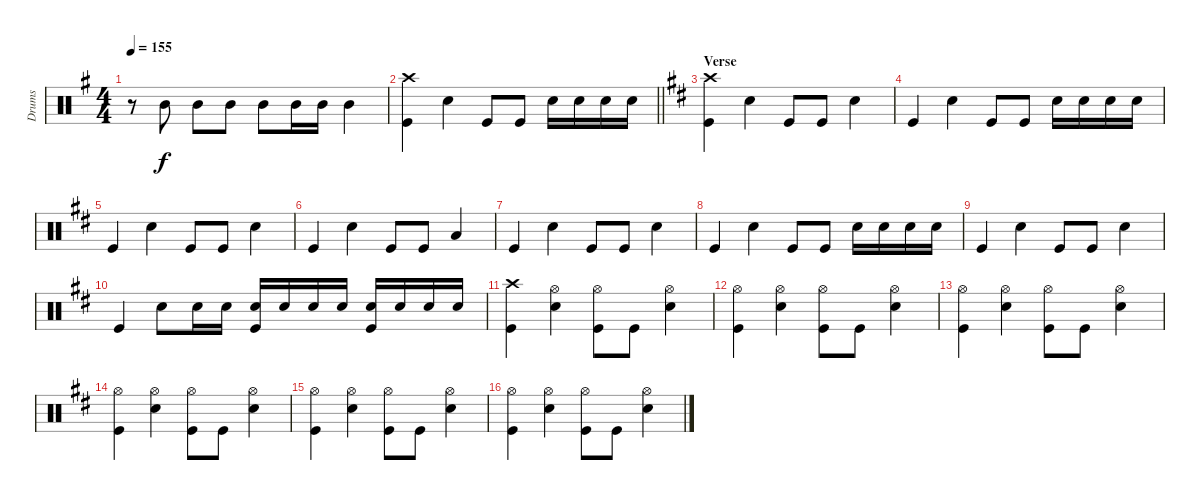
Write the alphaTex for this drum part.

\track ("Drums" "Drums") {instrument percussion}
\staff {score}
\articulation defaults
\ts (4 4)
\tempo 155
\clef neutral
\ks g
r.8{dy f} "Mid Tom (hit)".8 "Mid Tom (hit)".8 "Mid Tom (hit)".8 "Mid Tom (hit)".8 "Mid Tom (hit)".16 "Mid Tom (hit)".16 "Mid Tom (hit)".4 |
\barLineRight lightlight
("Crash high (hit)" "Kick (hit)").4 "Snare (hit) 2".4 "Kick (hit)".8 "Kick (hit)".8 "Snare (hit) 2".16 "Snare (hit) 2".16 "Snare (hit) 2".16 "Snare (hit) 2".16 |
\section ("" "Verse")
\ks d
("Crash high (hit)" "Kick (hit)").4 "Snare (hit) 2".4 "Kick (hit)".8 "Kick (hit)".8 "Snare (hit) 2".4 |
"Kick (hit)".4 "Snare (hit) 2".4 "Kick (hit)".8 "Kick (hit)".8 "Snare (hit) 2".16 "Snare (hit) 2".16 "Snare (hit) 2".16 "Snare (hit) 2".16 |
"Kick (hit)".4 "Snare (hit) 2".4 "Kick (hit)".8 "Kick (hit)".8 "Snare (hit) 2".4 |
"Kick (hit)".4 "Snare (hit) 2".4 "Kick (hit)".8 "Kick (hit)".8 "Low Tom (hit)".4 |
"Kick (hit)".4 "Snare (hit) 2".4 "Kick (hit)".8 "Kick (hit)".8 "Snare (hit) 2".4 |
"Kick (hit)".4 "Snare (hit) 2".4 "Kick (hit)".8 "Kick (hit)".8 "Snare (hit) 2".16 "Snare (hit) 2".16 "Snare (hit) 2".16 "Snare (hit) 2".16 |
"Kick (hit)".4 "Snare (hit) 2".4 "Kick (hit)".8 "Kick (hit)".8 "Snare (hit) 2".4 |
"Kick (hit)".4 "Snare (hit) 2".8 "Snare (hit) 2".16 "Snare (hit) 2".16 ("Snare (hit) 2" "Kick (hit)").16 "Snare (hit) 2".16 "Snare (hit) 2".16 "Snare (hit) 2".16 ("Snare (hit) 2" "Kick (hit)").16 "Snare (hit) 2".16 "Snare (hit) 2".16 "Snare (hit) 2".16 |
("Crash high (hit)" "Kick (hit)").4 ("Hi-Hat (open)" "Snare (hit) 2").4 ("Hi-Hat (open)" "Kick (hit)").8 "Kick (hit)".8 ("Hi-Hat (open)" "Snare (hit) 2").4 |
("Hi-Hat (open)" "Kick (hit)").4 ("Hi-Hat (open)" "Snare (hit) 2").4 ("Hi-Hat (open)" "Kick (hit)").8 "Kick (hit)".8 ("Hi-Hat (open)" "Snare (hit) 2").4 |
("Hi-Hat (open)" "Kick (hit)").4 ("Hi-Hat (open)" "Snare (hit) 2").4 ("Hi-Hat (open)" "Kick (hit)").8 "Kick (hit)".8 ("Hi-Hat (open)" "Snare (hit) 2").4 |
("Hi-Hat (open)" "Kick (hit)").4 ("Hi-Hat (open)" "Snare (hit) 2").4 ("Hi-Hat (open)" "Kick (hit)").8 "Kick (hit)".8 ("Hi-Hat (open)" "Snare (hit) 2").4 |
("Hi-Hat (open)" "Kick (hit)").4 ("Hi-Hat (open)" "Snare (hit) 2").4 ("Hi-Hat (open)" "Kick (hit)").8 "Kick (hit)".8 ("Hi-Hat (open)" "Snare (hit) 2").4 |
("Hi-Hat (open)" "Kick (hit)").4 ("Hi-Hat (open)" "Snare (hit) 2").4 ("Hi-Hat (open)" "Kick (hit)").8 "Kick (hit)".8 ("Hi-Hat (open)" "Snare (hit) 2").4
